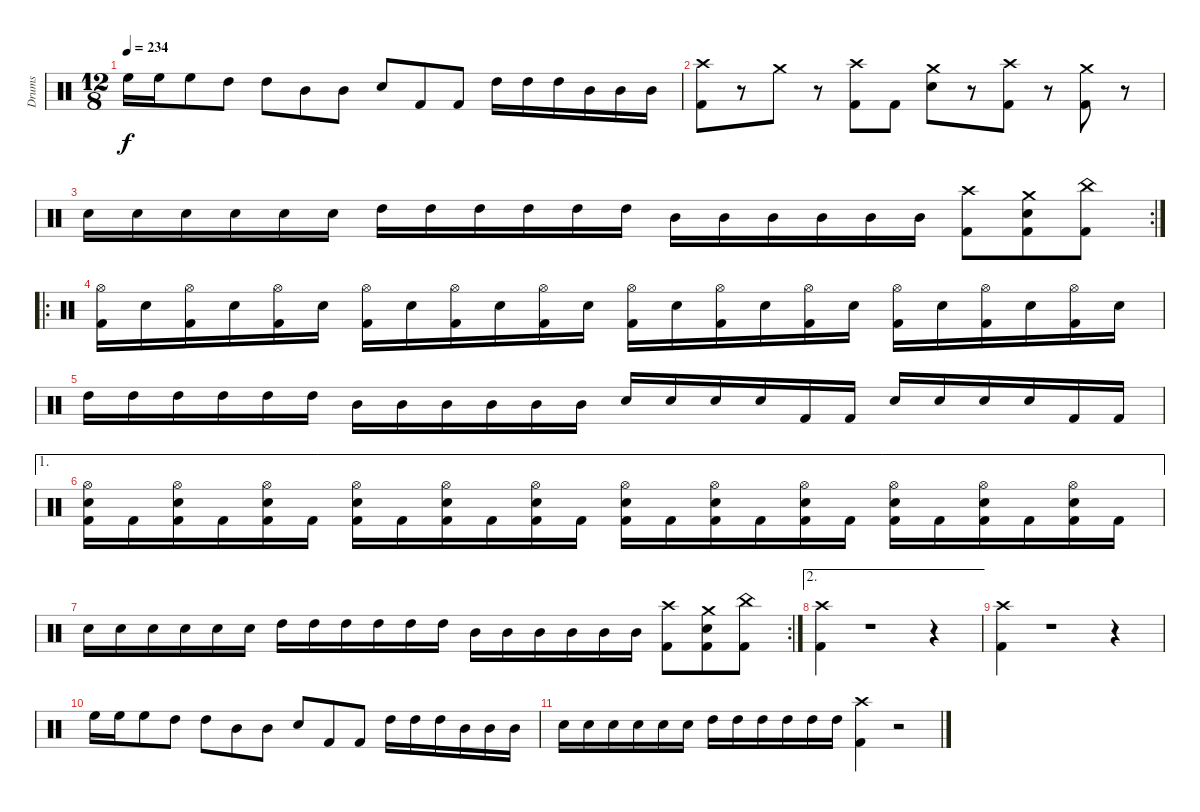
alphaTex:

\track ("Drums" "Drums") {instrument percussion}
\staff {score}
\articulation defaults
\ts (12 8)
\tempo 234
\clef neutral
\ks c "High Floor Tom (hit)".16{dy f} "High Floor Tom (hit)".16 "High Floor Tom (hit)".8 "High Tom (hit)".8 "High Tom (hit)".8 "Mid Tom (hit)".8 "Mid Tom (hit)".8 "Electric Snare (hit)".8 "Kick (hit) 2".8 "Kick (hit) 2".8 "High Tom (hit)".16 "High Tom (hit)".16 "High Tom (hit)".16 "Mid Tom (hit)".16 "Mid Tom (hit)".16 "Mid Tom (hit)".16
|
("Crash high (hit)" "Kick (hit) 2").8 r.8 "Crash medium (hit)".8 r.8 ("Crash high (hit)" "Kick (hit) 2").8 "Kick (hit) 2".8 ("Crash medium (hit)" "Electric Snare (hit)").8 r.8 ("Crash high (hit)" "Kick (hit) 2").8 r.8 ("Crash medium (hit)" "Kick (hit) 2").8 r.8 |
\rc 2 "Electric Snare (hit)".16 "Electric Snare (hit)".16 "Electric Snare (hit)".16 "Electric Snare (hit)".16 "Electric Snare (hit)".16 "Electric Snare (hit)".16 "High Tom (hit)".16 "High Tom (hit)".16 "High Tom (hit)".16 "High Tom (hit)".16 "High Tom (hit)".16 "High Tom (hit)".16 "Mid Tom (hit)".16 "Mid Tom (hit)".16 "Mid Tom (hit)".16 "Mid Tom (hit)".16 "Mid Tom (hit)".16 "Mid Tom (hit)".16
("Crash high (hit)" "Kick (hit) 2").8 ("Crash medium (hit)" "Electric Snare (hit)" "Kick (hit) 2").8 ("China (hit)" "Kick (hit) 2").8 |
\ro
("Hi-Hat (open)" "Kick (hit) 2").16 "Electric Snare (hit)".16 ("Hi-Hat (open)" "Kick (hit) 2").16 "Electric Snare (hit)".16 ("Hi-Hat (open)" "Kick (hit) 2").16 "Electric Snare (hit)".16 ("Hi-Hat (open)" "Kick (hit) 2").16 "Electric Snare (hit)".16 ("Hi-Hat (open)" "Kick (hit) 2").16 "Electric Snare (hit)".16 ("Hi-Hat (open)" "Kick (hit) 2").16 "Electric Snare (hit)".16 ("Hi-Hat (open)" "Kick (hit) 2").16 "Electric Snare (hit)".16 ("Hi-Hat (open)" "Kick (hit) 2").16 "Electric Snare (hit)".16 ("Hi-Hat (open)" "Kick (hit) 2").16 "Electric Snare (hit)".16 ("Hi-Hat (open)" "Kick (hit) 2").16 "Electric Snare (hit)".16 ("Hi-Hat (open)" "Kick (hit) 2").16 "Electric Snare (hit)".16 ("Hi-Hat (open)" "Kick (hit) 2").16 "Electric Snare (hit)".16 |
"High Tom (hit)".16 "High Tom (hit)".16 "High Tom (hit)".16 "High Tom (hit)".16 "High Tom (hit)".16 "High Tom (hit)".16 "Mid Tom (hit)".16 "Mid Tom (hit)".16 "Mid Tom (hit)".16 "Mid Tom (hit)".16 "Mid Tom (hit)".16 "Mid Tom (hit)".16 "Electric Snare (hit)".16 "Electric Snare (hit)".16 "Electric Snare (hit)".16 "Electric Snare (hit)".16 "Kick (hit) 2".16 "Kick (hit) 2".16 "Electric Snare (hit)".16 "Electric Snare (hit)".16 "Electric Snare (hit)".16 "Electric Snare (hit)".16 "Kick (hit) 2".16 "Kick (hit) 2".16 |
\ae 1
("Hi-Hat (open)" "Electric Snare (hit)" "Kick (hit) 2").16 "Kick (hit) 2".16 ("Hi-Hat (open)" "Electric Snare (hit)" "Kick (hit) 2").16 "Kick (hit) 2".16 ("Hi-Hat (open)" "Electric Snare (hit)" "Kick (hit) 2").16 "Kick (hit) 2".16 ("Hi-Hat (open)" "Electric Snare (hit)" "Kick (hit) 2").16 "Kick (hit) 2".16 ("Hi-Hat (open)" "Electric Snare (hit)" "Kick (hit) 2").16 "Kick (hit) 2".16 ("Hi-Hat (open)" "Electric Snare (hit)" "Kick (hit) 2").16 "Kick (hit) 2".16 ("Hi-Hat (open)" "Electric Snare (hit)" "Kick (hit) 2").16 "Kick (hit) 2".16 ("Hi-Hat (open)" "Electric Snare (hit)" "Kick (hit) 2").16 "Kick (hit) 2".16 ("Hi-Hat (open)" "Electric Snare (hit)" "Kick (hit) 2").16 "Kick (hit) 2".16 ("Hi-Hat (open)" "Electric Snare (hit)" "Kick (hit) 2").16 "Kick (hit) 2".16 ("Hi-Hat (open)" "Electric Snare (hit)" "Kick (hit) 2").16 "Kick (hit) 2".16 ("Hi-Hat (open)" "Electric Snare (hit)" "Kick (hit) 2").16 "Kick (hit) 2".16 |
\rc 2 "Electric Snare (hit)".16 "Electric Snare (hit)".16 "Electric Snare (hit)".16 "Electric Snare (hit)".16 "Electric Snare (hit)".16 "Electric Snare (hit)".16 "High Tom (hit)".16 "High Tom (hit)".16 "High Tom (hit)".16 "High Tom (hit)".16 "High Tom (hit)".16 "High Tom (hit)".16 "Mid Tom (hit)".16 "Mid Tom (hit)".16 "Mid Tom (hit)".16 "Mid Tom (hit)".16 "Mid Tom (hit)".16 "Mid Tom (hit)".16
("Crash high (hit)" "Kick (hit) 2").8 ("Crash medium (hit)" "Electric Snare (hit)" "Kick (hit) 2").8 ("China (hit)" "Kick (hit) 2").8 |
\ae 2
("Crash high (hit)" "Kick (hit) 2").4 r.1{volume 0} r.4 |
("Crash high (hit)" "Kick (hit) 2").4{volume 13} r.1{volume 0} r.4 |
"High Floor Tom (hit)".16{volume 13} "High Floor Tom (hit)".16 "High Floor Tom (hit)".8 "High Tom (hit)".8 "High Tom (hit)".8 "Mid Tom (hit)".8 "Mid Tom (hit)".8 "Electric Snare (hit)".8 "Kick (hit) 2".8 "Kick (hit) 2".8 "High Tom (hit)".16 "High Tom (hit)".16 "High Tom (hit)".16 "Mid Tom (hit)".16 "Mid Tom (hit)".16 "Mid Tom (hit)".16 |
"Electric Snare (hit)".16 "Electric Snare (hit)".16 "Electric Snare (hit)".16 "Electric Snare (hit)".16 "Electric Snare (hit)".16 "Electric Snare (hit)".16 "High Tom (hit)".16 "High Tom (hit)".16 "High Tom (hit)".16 "High Tom (hit)".16 "High Tom (hit)".16 "High Tom (hit)".16 ("Crash high (hit)" "Kick (hit) 2").4 r.2{volume 0}
